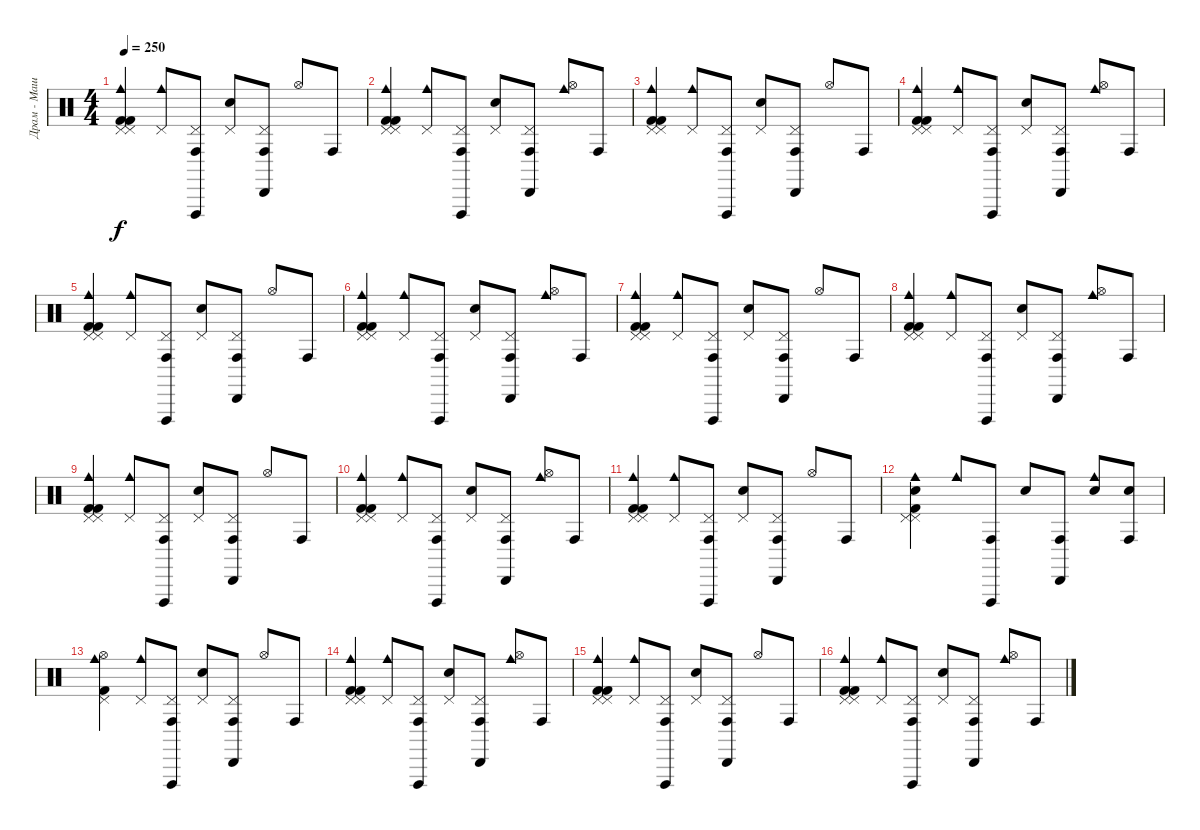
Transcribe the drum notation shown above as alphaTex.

\track ("Драм - Машина" "Драм - Маш") {instrument percussion}
\staff {score}
\articulation defaults
\ts (4 4)
\tempo 250
\clef neutral
\ks c
("Cowbell medium (hit)" "Kick (hit) 2" "Pedal Hi-Hat (hit)" "Pedal Hi-Hat (hit)" "Kick (hit) 2").4{dy f} ("Cowbell medium (hit)" "Pedal Hi-Hat (hit)").8 ("Conga high (hit)" "Vibraslap (hit)" "Pedal Hi-Hat (hit)").8 ("Pedal Hi-Hat (hit)" "Snare (hit) 2").8 ("Cabasa (hit)" "Conga high (hit)" "Pedal Hi-Hat (hit)").8 "Hi-Hat (open)".8 "Conga high (hit)".8 |
("Cowbell medium (hit)" "Kick (hit) 2" "Pedal Hi-Hat (hit)" "Pedal Hi-Hat (hit)" "Kick (hit) 2").4 ("Cowbell medium (hit)" "Pedal Hi-Hat (hit)").8 ("Conga high (hit)" "Vibraslap (hit)" "Pedal Hi-Hat (hit)").8 ("Pedal Hi-Hat (hit)" "Snare (hit) 2").8 ("Cabasa (hit)" "Conga high (hit)" "Pedal Hi-Hat (hit)").8 ("Cowbell medium (hit)" "Hi-Hat (open)").8 "Conga high (hit)".8 |
("Cowbell medium (hit)" "Kick (hit) 2" "Pedal Hi-Hat (hit)" "Pedal Hi-Hat (hit)" "Kick (hit) 2").4 ("Cowbell medium (hit)" "Pedal Hi-Hat (hit)").8 ("Conga high (hit)" "Vibraslap (hit)" "Pedal Hi-Hat (hit)").8 ("Pedal Hi-Hat (hit)" "Snare (hit) 2").8 ("Cabasa (hit)" "Conga high (hit)" "Pedal Hi-Hat (hit)").8 "Hi-Hat (open)".8 "Conga high (hit)".8 |
("Cowbell medium (hit)" "Kick (hit) 2" "Pedal Hi-Hat (hit)" "Pedal Hi-Hat (hit)" "Kick (hit) 2").4 ("Cowbell medium (hit)" "Pedal Hi-Hat (hit)").8 ("Conga high (hit)" "Vibraslap (hit)" "Pedal Hi-Hat (hit)").8 ("Pedal Hi-Hat (hit)" "Snare (hit) 2").8 ("Cabasa (hit)" "Conga high (hit)" "Pedal Hi-Hat (hit)").8 ("Cowbell medium (hit)" "Hi-Hat (open)").8 "Conga high (hit)".8 |
("Cowbell medium (hit)" "Kick (hit) 2" "Pedal Hi-Hat (hit)" "Pedal Hi-Hat (hit)" "Kick (hit) 2").4 ("Cowbell medium (hit)" "Pedal Hi-Hat (hit)").8 ("Conga high (hit)" "Vibraslap (hit)" "Pedal Hi-Hat (hit)").8 ("Pedal Hi-Hat (hit)" "Snare (hit) 2").8 ("Cabasa (hit)" "Conga high (hit)" "Pedal Hi-Hat (hit)").8 "Hi-Hat (open)".8 "Conga high (hit)".8 |
("Cowbell medium (hit)" "Kick (hit) 2" "Pedal Hi-Hat (hit)" "Pedal Hi-Hat (hit)" "Kick (hit) 2").4 ("Cowbell medium (hit)" "Pedal Hi-Hat (hit)").8 ("Conga high (hit)" "Vibraslap (hit)" "Pedal Hi-Hat (hit)").8 ("Pedal Hi-Hat (hit)" "Snare (hit) 2").8 ("Cabasa (hit)" "Conga high (hit)" "Pedal Hi-Hat (hit)").8 ("Cowbell medium (hit)" "Hi-Hat (open)").8 "Conga high (hit)".8 |
("Cowbell medium (hit)" "Kick (hit) 2" "Pedal Hi-Hat (hit)" "Pedal Hi-Hat (hit)" "Kick (hit) 2").4 ("Cowbell medium (hit)" "Pedal Hi-Hat (hit)").8 ("Conga high (hit)" "Vibraslap (hit)" "Pedal Hi-Hat (hit)").8 ("Pedal Hi-Hat (hit)" "Snare (hit) 2").8 ("Cabasa (hit)" "Conga high (hit)" "Pedal Hi-Hat (hit)").8 "Hi-Hat (open)".8 "Conga high (hit)".8 |
("Cowbell medium (hit)" "Kick (hit) 2" "Pedal Hi-Hat (hit)" "Pedal Hi-Hat (hit)" "Kick (hit) 2").4 ("Cowbell medium (hit)" "Pedal Hi-Hat (hit)").8 ("Conga high (hit)" "Vibraslap (hit)" "Pedal Hi-Hat (hit)").8 ("Pedal Hi-Hat (hit)" "Snare (hit) 2").8 ("Cabasa (hit)" "Conga high (hit)" "Pedal Hi-Hat (hit)").8 ("Cowbell medium (hit)" "Hi-Hat (open)").8 "Conga high (hit)".8 |
("Cowbell medium (hit)" "Kick (hit) 2" "Pedal Hi-Hat (hit)" "Pedal Hi-Hat (hit)" "Kick (hit) 2").4 ("Cowbell medium (hit)" "Pedal Hi-Hat (hit)").8 ("Conga high (hit)" "Vibraslap (hit)" "Pedal Hi-Hat (hit)").8 ("Pedal Hi-Hat (hit)" "Snare (hit) 2").8 ("Cabasa (hit)" "Conga high (hit)" "Pedal Hi-Hat (hit)").8 "Hi-Hat (open)".8 "Conga high (hit)".8 |
("Cowbell medium (hit)" "Kick (hit) 2" "Pedal Hi-Hat (hit)" "Pedal Hi-Hat (hit)" "Kick (hit) 2").4 ("Cowbell medium (hit)" "Pedal Hi-Hat (hit)").8 ("Conga high (hit)" "Vibraslap (hit)" "Pedal Hi-Hat (hit)").8 ("Pedal Hi-Hat (hit)" "Snare (hit) 2").8 ("Cabasa (hit)" "Conga high (hit)" "Pedal Hi-Hat (hit)").8 ("Cowbell medium (hit)" "Hi-Hat (open)").8 "Conga high (hit)".8 |
("Cowbell medium (hit)" "Kick (hit) 2" "Pedal Hi-Hat (hit)" "Pedal Hi-Hat (hit)" "Kick (hit) 2").4 ("Cowbell medium (hit)" "Pedal Hi-Hat (hit)").8 ("Conga high (hit)" "Vibraslap (hit)" "Pedal Hi-Hat (hit)").8 ("Pedal Hi-Hat (hit)" "Snare (hit) 2").8 ("Cabasa (hit)" "Conga high (hit)" "Pedal Hi-Hat (hit)").8 "Hi-Hat (open)".8 "Conga high (hit)".8 |
("Cowbell medium (hit)" "Kick (hit) 2" "Pedal Hi-Hat (hit)" "Pedal Hi-Hat (hit)" "Electric Snare (hit)").4 "Cowbell medium (hit)".8 ("Conga high (hit)" "Vibraslap (hit)").8 "Electric Snare (hit)".8 ("Cabasa (hit)" "Conga high (hit)").8 ("Cowbell medium (hit)" "Electric Snare (hit)").8 ("Conga high (hit)" "Electric Snare (hit)").8 |
("Cowbell medium (hit)" "Hi-Hat (open)" "Pedal Hi-Hat (hit)" "Kick (hit) 2").4 ("Cowbell medium (hit)" "Pedal Hi-Hat (hit)").8 ("Conga high (hit)" "Vibraslap (hit)" "Pedal Hi-Hat (hit)").8 ("Pedal Hi-Hat (hit)" "Snare (hit) 2").8 ("Cabasa (hit)" "Conga high (hit)" "Pedal Hi-Hat (hit)").8 "Hi-Hat (open)".8 "Conga high (hit)".8 |
("Cowbell medium (hit)" "Kick (hit) 2" "Pedal Hi-Hat (hit)" "Pedal Hi-Hat (hit)" "Kick (hit) 2").4 ("Cowbell medium (hit)" "Pedal Hi-Hat (hit)").8 ("Conga high (hit)" "Vibraslap (hit)" "Pedal Hi-Hat (hit)").8 ("Pedal Hi-Hat (hit)" "Snare (hit) 2").8 ("Cabasa (hit)" "Conga high (hit)" "Pedal Hi-Hat (hit)").8 ("Cowbell medium (hit)" "Hi-Hat (open)").8 "Conga high (hit)".8 |
("Cowbell medium (hit)" "Kick (hit) 2" "Pedal Hi-Hat (hit)" "Pedal Hi-Hat (hit)" "Kick (hit) 2").4 ("Cowbell medium (hit)" "Pedal Hi-Hat (hit)").8 ("Conga high (hit)" "Vibraslap (hit)" "Pedal Hi-Hat (hit)").8 ("Pedal Hi-Hat (hit)" "Snare (hit) 2").8 ("Cabasa (hit)" "Conga high (hit)" "Pedal Hi-Hat (hit)").8 "Hi-Hat (open)".8 "Conga high (hit)".8 |
("Cowbell medium (hit)" "Kick (hit) 2" "Pedal Hi-Hat (hit)" "Pedal Hi-Hat (hit)" "Kick (hit) 2").4 ("Cowbell medium (hit)" "Pedal Hi-Hat (hit)").8 ("Conga high (hit)" "Vibraslap (hit)" "Pedal Hi-Hat (hit)").8 ("Pedal Hi-Hat (hit)" "Snare (hit) 2").8 ("Cabasa (hit)" "Conga high (hit)" "Pedal Hi-Hat (hit)").8 ("Cowbell medium (hit)" "Hi-Hat (open)").8 "Conga high (hit)".8
